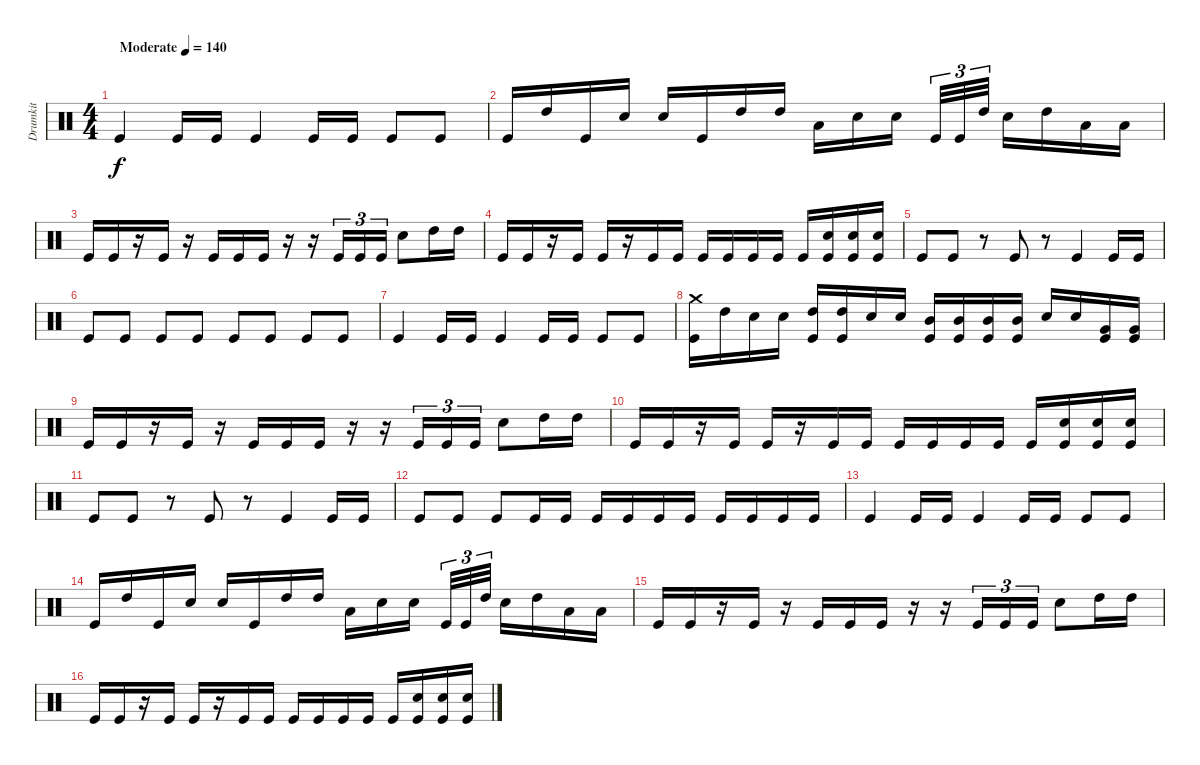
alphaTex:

\track ("Drumkit" "Drumkit") {instrument percussion}
\staff {score}
\articulation defaults
\ts (4 4)
\tempo (140 "Moderate")
\clef neutral
\ks c "Kick (hit)".4{dy f} "Kick (hit)".16 "Kick (hit)".16 "Kick (hit)".4 "Kick (hit)".16 "Kick (hit)".16 "Kick (hit)".8 "Kick (hit)".8
|
"Kick (hit)".16 "High Tom (hit)".16 "Kick (hit)".16 "Snare (hit) 2".16 "Snare (hit) 2".16 "Kick (hit)".16 "High Tom (hit)".16 "High Tom (hit)".16 "Low Floor Tom (hit)".16 "Snare (hit) 2".16 "Snare (hit) 2".16 "Kick (hit)".32{tu (3 2)} "Kick (hit)".32{tu (3 2)} "High Tom (hit)".32{tu (3 2)} "Snare (hit) 2".16 "High Tom (hit)".16 "Low Floor Tom (hit)".16 "Low Floor Tom (hit)".16 |
"Kick (hit)".16 "Kick (hit)".16 r.16 "Kick (hit)".16 r.16 "Kick (hit)".16 "Kick (hit)".16 "Kick (hit)".16 r.16 r.16 "Kick (hit)".16{tu (3 2)} "Kick (hit)".16{tu (3 2)} "Kick (hit)".16{tu (3 2)} "Snare (hit) 2".8 "High Tom (hit)".16 "High Tom (hit)".16 |
"Kick (hit)".16 "Kick (hit)".16 r.16 "Kick (hit)".16 "Kick (hit)".16 r.16 "Kick (hit)".16 "Kick (hit)".16 "Kick (hit)".16 "Kick (hit)".16 "Kick (hit)".16 "Kick (hit)".16 "Kick (hit)".16 ("Snare (hit) 2" "Kick (hit)").16 ("Snare (hit) 2" "Kick (hit)").16 ("Snare (hit) 2" "Kick (hit)").16 |
"Kick (hit)".8 "Kick (hit)".8 r.8 "Kick (hit)".8 r.8 "Kick (hit)".4 "Kick (hit)".16 "Kick (hit)".16 |
"Kick (hit)".8 "Kick (hit)".8 "Kick (hit)".8 "Kick (hit)".8 "Kick (hit)".8 "Kick (hit)".8 "Kick (hit)".8 "Kick (hit)".8 |
"Kick (hit)".4 "Kick (hit)".16 "Kick (hit)".16 "Kick (hit)".4 "Kick (hit)".16 "Kick (hit)".16 "Kick (hit)".8 "Kick (hit)".8 |
("Crash medium (hit)" "Kick (hit)").16 "High Tom (hit)".16 "Snare (hit) 2".16 "Snare (hit) 2".16 ("High Tom (hit)" "Kick (hit)").16 ("High Tom (hit)" "Kick (hit)").16 "Snare (hit) 2".16 "Snare (hit) 2".16 ("Mid Tom (hit)" "Kick (hit)").16 ("Mid Tom (hit)" "Kick (hit)").16 ("Mid Tom (hit)" "Kick (hit)").16 ("Mid Tom (hit)" "Kick (hit)").16 "Snare (hit) 2".16 "Snare (hit) 2".16 ("Very Low Tom (hit)" "Kick (hit)").16 ("Very Low Tom (hit)" "Kick (hit)").16 |
"Kick (hit)".16 "Kick (hit)".16 r.16 "Kick (hit)".16 r.16 "Kick (hit)".16 "Kick (hit)".16 "Kick (hit)".16 r.16 r.16 "Kick (hit)".16{tu (3 2)} "Kick (hit)".16{tu (3 2)} "Kick (hit)".16{tu (3 2)} "Snare (hit) 2".8 "High Tom (hit)".16 "High Tom (hit)".16 |
"Kick (hit)".16 "Kick (hit)".16 r.16 "Kick (hit)".16 "Kick (hit)".16 r.16 "Kick (hit)".16 "Kick (hit)".16 "Kick (hit)".16 "Kick (hit)".16 "Kick (hit)".16 "Kick (hit)".16 "Kick (hit)".16 ("Snare (hit) 2" "Kick (hit)").16 ("Snare (hit) 2" "Kick (hit)").16 ("Snare (hit) 2" "Kick (hit)").16 |
"Kick (hit)".8 "Kick (hit)".8 r.8 "Kick (hit)".8 r.8 "Kick (hit)".4 "Kick (hit)".16 "Kick (hit)".16 |
"Kick (hit)".8 "Kick (hit)".8 "Kick (hit)".8 "Kick (hit)".16 "Kick (hit)".16 "Kick (hit)".16 "Kick (hit)".16 "Kick (hit)".16 "Kick (hit)".16 "Kick (hit)".16 "Kick (hit)".16 "Kick (hit)".16 "Kick (hit)".16 |
"Kick (hit)".4 "Kick (hit)".16 "Kick (hit)".16 "Kick (hit)".4 "Kick (hit)".16 "Kick (hit)".16 "Kick (hit)".8 "Kick (hit)".8 |
"Kick (hit)".16 "High Tom (hit)".16 "Kick (hit)".16 "Snare (hit) 2".16 "Snare (hit) 2".16 "Kick (hit)".16 "High Tom (hit)".16 "High Tom (hit)".16 "Low Floor Tom (hit)".16 "Snare (hit) 2".16 "Snare (hit) 2".16 "Kick (hit)".32{tu (3 2)} "Kick (hit)".32{tu (3 2)} "High Tom (hit)".32{tu (3 2)} "Snare (hit) 2".16 "High Tom (hit)".16 "Low Floor Tom (hit)".16 "Low Floor Tom (hit)".16 |
"Kick (hit)".16 "Kick (hit)".16 r.16 "Kick (hit)".16 r.16 "Kick (hit)".16 "Kick (hit)".16 "Kick (hit)".16 r.16 r.16 "Kick (hit)".16{tu (3 2)} "Kick (hit)".16{tu (3 2)} "Kick (hit)".16{tu (3 2)} "Snare (hit) 2".8 "High Tom (hit)".16 "High Tom (hit)".16 |
"Kick (hit)".16 "Kick (hit)".16 r.16 "Kick (hit)".16 "Kick (hit)".16 r.16 "Kick (hit)".16 "Kick (hit)".16 "Kick (hit)".16 "Kick (hit)".16 "Kick (hit)".16 "Kick (hit)".16 "Kick (hit)".16 ("Snare (hit) 2" "Kick (hit)").16 ("Snare (hit) 2" "Kick (hit)").16 ("Snare (hit) 2" "Kick (hit)").16
